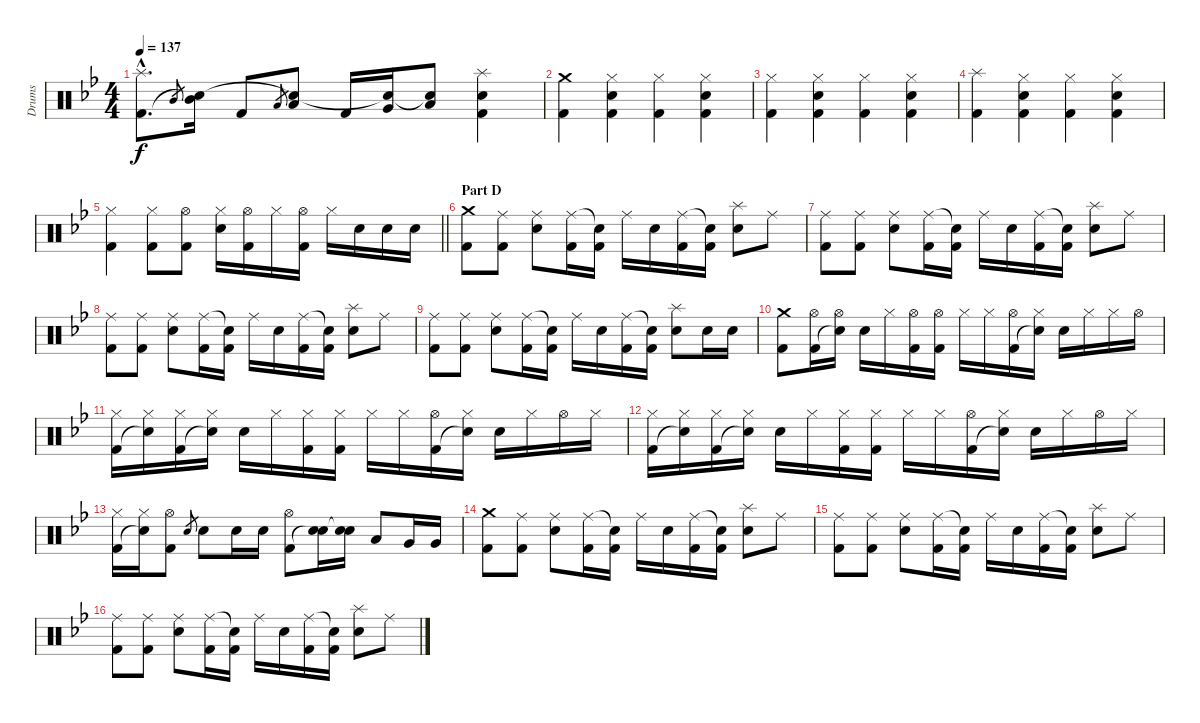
\track ("Drums" "Drums") {instrument percussion}
\staff {score}
\articulation defaults
\ts (4 4)
\tempo 137
\clef neutral
\ks bb
("Splash (hit)"{hac} "Kick (hit) 2"{hac}).8{d dy f} "Mid Tom (hit)".8{gr} ("Mid Tom (hit)" "Snare (hit)"{t}).16 "Kick (hit) 2".8 "Low Tom (hit)".8{gr} ("Low Tom (hit)" "Snare (hit)"{t}).8 "Kick (hit) 2".16 ("Very Low Tom (hit)" "Snare (hit)"{t}).16 ("Low Floor Tom (hit)" "Snare (hit)"{t}).8 ("Splash (hit)" "Electric Snare (hit)" "Kick (hit) 2").4 |
("Crash medium (hit)" "Kick (hit) 2").4 ("Hi-Hat (closed)" "Electric Snare (hit)" "Kick (hit) 2").4 ("Hi-Hat (closed)" "Kick (hit) 2").4 ("Hi-Hat (closed)" "Electric Snare (hit)" "Kick (hit) 2").4 |
("Hi-Hat (closed)" "Kick (hit) 2").4 ("Hi-Hat (closed)" "Electric Snare (hit)" "Kick (hit) 2").4 ("Hi-Hat (closed)" "Kick (hit) 2").4 ("Hi-Hat (closed)" "Electric Snare (hit)" "Kick (hit) 2").4 |
("Splash (hit)" "Kick (hit) 2").4 ("Hi-Hat (closed)" "Electric Snare (hit)" "Kick (hit) 2").4 ("Hi-Hat (closed)" "Kick (hit) 2").4 ("Hi-Hat (closed)" "Electric Snare (hit)" "Kick (hit) 2").4 |
\barLineRight lightlight
("Hi-Hat (closed)" "Kick (hit) 2").4 ("Hi-Hat (closed)" "Kick (hit) 2").8 ("Hi-Hat (open)" "Kick (hit) 2").8 ("Hi-Hat (closed)" "Electric Snare (hit)").16 ("Hi-Hat (open)" "Kick (hit) 2").16 "Hi-Hat (closed)".16 ("Hi-Hat (open)" "Kick (hit) 2").16 "Hi-Hat (closed)".16 "Electric Snare (hit)".16 "Electric Snare (hit)".16 "Electric Snare (hit)".16 |
\section ("" "Part D")
("Crash medium (hit)" "Kick (hit) 2").8 ("Ride (middle)" "Kick (hit) 2").8 ("Ride (middle)" "Electric Snare (hit)").8 ("Ride (middle)" "Kick (hit) 2").16 ("Snare (hit)"{t} "Kick (hit) 2").16 "Ride (middle)".16 "Electric Snare (hit)".16 ("Ride (middle)" "Kick (hit) 2").16 ("Snare (hit)"{t} "Kick (hit) 2").16 ("Splash (hit)" "Electric Snare (hit)").8 "Ride (middle)".8 |
("Ride (middle)" "Kick (hit) 2").8 ("Ride (middle)" "Kick (hit) 2").8 ("Ride (middle)" "Electric Snare (hit)").8 ("Ride (middle)" "Kick (hit) 2").16 ("Snare (hit)"{t} "Kick (hit) 2").16 "Ride (middle)".16 "Electric Snare (hit)".16 ("Ride (middle)" "Kick (hit) 2").16 ("Snare (hit)"{t} "Kick (hit) 2").16 ("Splash (hit)" "Electric Snare (hit)").8 "Ride (middle)".8 |
("Ride (middle)" "Kick (hit) 2").8 ("Ride (middle)" "Kick (hit) 2").8 ("Ride (middle)" "Electric Snare (hit)").8 ("Ride (middle)" "Kick (hit) 2").16 ("Snare (hit)"{t} "Kick (hit) 2").16 "Ride (middle)".16 "Electric Snare (hit)".16 ("Ride (middle)" "Kick (hit) 2").16 ("Snare (hit)"{t} "Kick (hit) 2").16 ("Splash (hit)" "Electric Snare (hit)").8 "Ride (middle)".8 |
("Ride (middle)" "Kick (hit) 2").8 ("Ride (middle)" "Kick (hit) 2").8 ("Ride (middle)" "Electric Snare (hit)").8 ("Ride (middle)" "Kick (hit) 2").16 ("Snare (hit)"{t} "Kick (hit) 2").16 "Ride (middle)".16 "Electric Snare (hit)".16 ("Ride (middle)" "Kick (hit) 2").16 ("Snare (hit)"{t} "Kick (hit) 2").16 ("Splash (hit)" "Electric Snare (hit)").8 "Electric Snare (hit)".16 "Electric Snare (hit)".16 |
("Crash medium (hit)" "Kick (hit) 2").8 ("Hi-Hat (open)" "Kick (hit) 2").16 ("Hi-Hat (open)" "Snare (hit)"{t}).16 "Electric Snare (hit)".16 "Hi-Hat (closed)".16 ("Hi-Hat (open)" "Kick (hit) 2").16 ("Hi-Hat (open)" "Kick (hit) 2").16 "Hi-Hat (closed)".16 "Hi-Hat (closed)".16 ("Hi-Hat (open)" "Kick (hit) 2").16 ("Hi-Hat (closed)" "Snare (hit)"{t}).16 "Electric Snare (hit)".16 "Hi-Hat (closed)".16 "Hi-Hat (closed)".16 "Hi-Hat (open)".16 |
("Hi-Hat (closed)" "Kick (hit) 2").16 ("Hi-Hat (closed)" "Snare (hit)"{t}).16 ("Hi-Hat (closed)" "Kick (hit) 2").16 ("Hi-Hat (closed)" "Snare (hit)"{t}).16 "Electric Snare (hit)".16 "Hi-Hat (closed)".16 ("Hi-Hat (closed)" "Kick (hit) 2").16 ("Hi-Hat (closed)" "Kick (hit) 2").16 "Hi-Hat (closed)".16 "Hi-Hat (closed)".16 ("Hi-Hat (open)" "Kick (hit) 2").16 ("Hi-Hat (closed)" "Snare (hit)"{t}).16 "Electric Snare (hit)".16 "Hi-Hat (closed)".16 "Hi-Hat (open)".16 "Hi-Hat (closed)".16 |
("Hi-Hat (closed)" "Kick (hit) 2").16 ("Hi-Hat (closed)" "Snare (hit)"{t}).16 ("Hi-Hat (closed)" "Kick (hit) 2").16 ("Hi-Hat (closed)" "Snare (hit)"{t}).16 "Electric Snare (hit)".16 "Hi-Hat (closed)".16 ("Hi-Hat (closed)" "Kick (hit) 2").16 ("Hi-Hat (closed)" "Kick (hit) 2").16 "Hi-Hat (closed)".16 "Hi-Hat (closed)".16 ("Hi-Hat (open)" "Kick (hit) 2").16 ("Hi-Hat (closed)" "Snare (hit)"{t}).16 "Electric Snare (hit)".16 "Hi-Hat (closed)".16 "Hi-Hat (open)".16 "Hi-Hat (closed)".16 |
("Hi-Hat (closed)" "Kick (hit) 2").16 ("Hi-Hat (closed)" "Snare (hit)"{t}).16 ("Hi-Hat (open)" "Kick (hit) 2").8 "Electric Snare (hit)".8{gr} "Electric Snare (hit)".8 "Electric Snare (hit)".16 "Electric Snare (hit)".16 ("Hi-Hat (open)" "Kick (hit) 2").8 ("Electric Snare (hit)" "Snare (hit)"{t}).16 ("Electric Snare (hit)" "Snare (hit)"{t}).16 "Low Tom (hit)".8 "Very Low Tom (hit)".16 "Very Low Tom (hit)".16 |
("Crash medium (hit)" "Kick (hit) 2").8 ("Ride (middle)" "Kick (hit) 2").8 ("Ride (middle)" "Electric Snare (hit)").8 ("Ride (middle)" "Kick (hit) 2").16 ("Snare (hit)"{t} "Kick (hit) 2").16 "Ride (middle)".16 "Electric Snare (hit)".16 ("Ride (middle)" "Kick (hit) 2").16 ("Snare (hit)"{t} "Kick (hit) 2").16 ("Splash (hit)" "Electric Snare (hit)").8 "Ride (middle)".8 |
("Ride (middle)" "Kick (hit) 2").8 ("Ride (middle)" "Kick (hit) 2").8 ("Ride (middle)" "Electric Snare (hit)").8 ("Ride (middle)" "Kick (hit) 2").16 ("Snare (hit)"{t} "Kick (hit) 2").16 "Ride (middle)".16 "Electric Snare (hit)".16 ("Ride (middle)" "Kick (hit) 2").16 ("Snare (hit)"{t} "Kick (hit) 2").16 ("Splash (hit)" "Electric Snare (hit)").8 "Ride (middle)".8 |
("Ride (middle)" "Kick (hit) 2").8 ("Ride (middle)" "Kick (hit) 2").8 ("Ride (middle)" "Electric Snare (hit)").8 ("Ride (middle)" "Kick (hit) 2").16 ("Snare (hit)"{t} "Kick (hit) 2").16 "Ride (middle)".16 "Electric Snare (hit)".16 ("Ride (middle)" "Kick (hit) 2").16 ("Snare (hit)"{t} "Kick (hit) 2").16 ("Splash (hit)" "Electric Snare (hit)").8 "Ride (middle)".8
